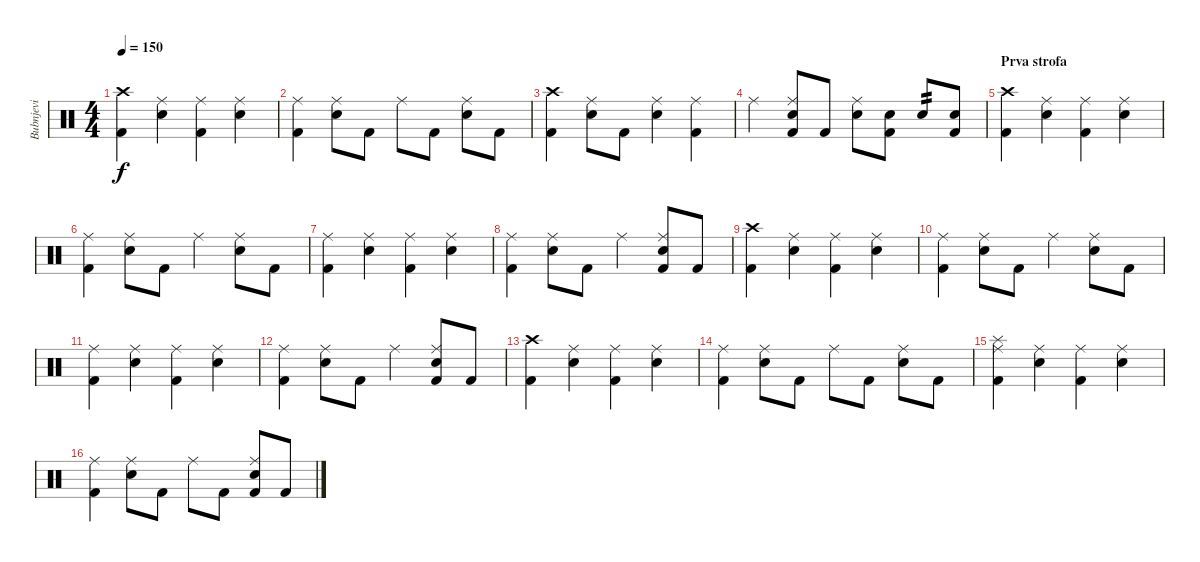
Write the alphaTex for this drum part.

\track ("Bubnjevi" "Bubnjevi") {instrument percussion}
\staff {score}
\articulation defaults
\ts (4 4)
\tempo 150
\clef neutral
\ks c
("Crash high (hit)" "Kick (hit) 2").4{dy f} ("Ride (middle)" "Snare (hit) 2").4 ("Ride (middle)" "Kick (hit) 2").4 ("Ride (middle)" "Snare (hit) 2").4 |
("Ride (middle)" "Kick (hit) 2").4 ("Ride (middle)" "Snare (hit) 2").8 "Kick (hit) 2".8 "Ride (middle)".8 "Kick (hit) 2".8 ("Ride (middle)" "Snare (hit) 2").8 "Kick (hit) 2".8 |
("Crash high (hit)" "Kick (hit) 2").4 ("Ride (middle)" "Snare (hit) 2").8 "Kick (hit) 2".8 ("Ride (middle)" "Snare (hit) 2").4 ("Ride (middle)" "Kick (hit) 2").4 |
"Ride (middle)".4 ("Ride (middle)" "Snare (hit) 2" "Kick (hit) 2").8 "Kick (hit) 2".8 ("Ride (middle)" "Snare (hit) 2").8 ("Snare (hit) 2" "Kick (hit) 2").8 "Snare (hit) 2".8{tp 2} ("Snare (hit) 2" "Kick (hit) 2").8 |
\section ("" "Prva strofa")
("Crash high (hit)" "Kick (hit) 2").4 ("Ride (middle)" "Snare (hit) 2").4 ("Ride (middle)" "Kick (hit) 2").4 ("Ride (middle)" "Snare (hit) 2").4 |
("Ride (middle)" "Kick (hit) 2").4 ("Ride (middle)" "Snare (hit) 2").8 "Kick (hit) 2".8 "Ride (middle)".4 ("Ride (middle)" "Snare (hit) 2").8 "Kick (hit) 2".8 |
("Ride (middle)" "Kick (hit) 2").4 ("Ride (middle)" "Snare (hit) 2").4 ("Ride (middle)" "Kick (hit) 2").4 ("Ride (middle)" "Snare (hit) 2").4 |
("Ride (middle)" "Kick (hit) 2").4 ("Ride (middle)" "Snare (hit) 2").8 "Kick (hit) 2".8 "Ride (middle)".4 ("Ride (middle)" "Snare (hit) 2" "Kick (hit) 2").8 "Kick (hit) 2".8 |
("Crash high (hit)" "Kick (hit) 2").4 ("Ride (middle)" "Snare (hit) 2").4 ("Ride (middle)" "Kick (hit) 2").4 ("Ride (middle)" "Snare (hit) 2").4 |
("Ride (middle)" "Kick (hit) 2").4 ("Ride (middle)" "Snare (hit) 2").8 "Kick (hit) 2".8 "Ride (middle)".4 ("Ride (middle)" "Snare (hit) 2").8 "Kick (hit) 2".8 |
("Ride (middle)" "Kick (hit) 2").4 ("Ride (middle)" "Snare (hit) 2").4 ("Ride (middle)" "Kick (hit) 2").4 ("Ride (middle)" "Snare (hit) 2").4 |
("Ride (middle)" "Kick (hit) 2").4 ("Ride (middle)" "Snare (hit) 2").8 "Kick (hit) 2".8 "Ride (middle)".4 ("Ride (middle)" "Snare (hit) 2" "Kick (hit) 2").8 "Kick (hit) 2".8 |
("Crash high (hit)" "Kick (hit) 2").4 ("Ride (middle)" "Snare (hit) 2").4 ("Ride (middle)" "Kick (hit) 2").4 ("Ride (middle)" "Snare (hit) 2").4 |
("Ride (middle)" "Kick (hit) 2").4 ("Ride (middle)" "Snare (hit) 2").8 "Kick (hit) 2".8 "Ride (middle)".8 "Kick (hit) 2".8 ("Ride (middle)" "Snare (hit) 2").8 "Kick (hit) 2".8 |
("Splash (hit)" "Ride (middle)" "Kick (hit) 2").4 ("Ride (middle)" "Snare (hit) 2").4 ("Ride (middle)" "Kick (hit) 2").4 ("Ride (middle)" "Snare (hit) 2").4 |
("Ride (middle)" "Kick (hit) 2").4 ("Ride (middle)" "Snare (hit) 2").8 "Kick (hit) 2".8 "Ride (middle)".8 "Kick (hit) 2".8 ("Ride (middle)" "Snare (hit) 2" "Kick (hit) 2").8 "Kick (hit) 2".8
